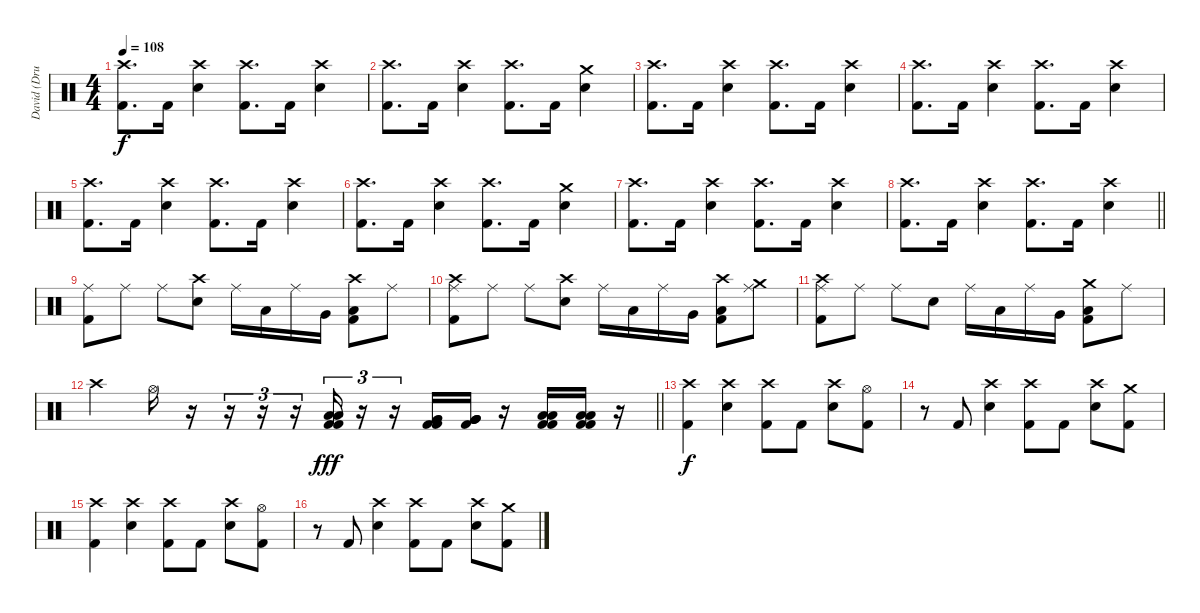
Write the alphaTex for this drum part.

\track ("David (Drum)" "David (Dru") {instrument percussion}
\staff {score}
\articulation defaults
\ts (4 4)
\section ("" "")
\tempo 108
\clef neutral
\ks c
("Crash high (hit)" "Kick (hit) 2").8{d dy f} "Kick (hit) 2".16 ("Crash high (hit)" "Electric Snare (hit)").4 ("Crash high (hit)" "Kick (hit) 2").8{d} "Kick (hit) 2".16 ("Crash high (hit)" "Electric Snare (hit)").4 |
("Crash high (hit)" "Kick (hit) 2").8{d} "Kick (hit) 2".16 ("Crash high (hit)" "Electric Snare (hit)").4 ("Crash high (hit)" "Kick (hit) 2").8{d} "Kick (hit) 2".16 ("Crash medium (hit)" "Electric Snare (hit)").4 |
("Crash high (hit)" "Kick (hit) 2").8{d} "Kick (hit) 2".16 ("Crash high (hit)" "Electric Snare (hit)").4 ("Crash high (hit)" "Kick (hit) 2").8{d} "Kick (hit) 2".16 ("Crash high (hit)" "Electric Snare (hit)").4 |
("Crash high (hit)" "Kick (hit) 2").8{d} "Kick (hit) 2".16 ("Crash high (hit)" "Electric Snare (hit)").4 ("Crash high (hit)" "Kick (hit) 2").8{d} "Kick (hit) 2".16 ("Crash high (hit)" "Electric Snare (hit)").4 |
("Crash high (hit)" "Kick (hit) 2").8{d} "Kick (hit) 2".16 ("Crash high (hit)" "Electric Snare (hit)").4 ("Crash high (hit)" "Kick (hit) 2").8{d} "Kick (hit) 2".16 ("Crash high (hit)" "Electric Snare (hit)").4 |
("Crash high (hit)" "Kick (hit) 2").8{d} "Kick (hit) 2".16 ("Crash high (hit)" "Electric Snare (hit)").4 ("Crash high (hit)" "Kick (hit) 2").8{d} "Kick (hit) 2".16 ("Crash medium (hit)" "Electric Snare (hit)").4 |
("Crash high (hit)" "Kick (hit) 2").8{d} "Kick (hit) 2".16 ("Crash high (hit)" "Electric Snare (hit)").4 ("Crash high (hit)" "Kick (hit) 2").8{d} "Kick (hit) 2".16 ("Crash high (hit)" "Electric Snare (hit)").4 |
\barLineRight lightlight
("Crash high (hit)" "Kick (hit) 2").8{d} "Kick (hit) 2".16 ("Crash high (hit)" "Electric Snare (hit)").4 ("Crash high (hit)" "Kick (hit) 2").8{d} "Kick (hit) 2".16 ("Crash high (hit)" "Electric Snare (hit)").4 |
\section ("" "")
("Ride (middle)" "Kick (hit) 2").8 "Ride (middle)".8 "Ride (middle)".8 ("Crash high (hit)" "Electric Snare (hit)").8 "Ride (middle)".16 "Low Tom (hit)".16 "Ride (middle)".16 "Very Low Tom (hit)".16 ("Crash high (hit)" "Low Floor Tom (hit)" "Kick (hit) 2").8 "Ride (middle)".8 |
("Crash high (hit)" "Ride (middle)" "Kick (hit) 2").8 "Ride (middle)".8 "Ride (middle)".8 ("Crash high (hit)" "Electric Snare (hit)").8 "Ride (middle)".16 "Low Tom (hit)".16 "Ride (middle)".16 "Very Low Tom (hit)".16 ("Crash high (hit)" "Low Floor Tom (hit)" "Kick (hit) 2").8 ("Crash medium (hit)" "Ride (middle)").8 |
("Crash high (hit)" "Ride (middle)" "Kick (hit) 2").8 "Ride (middle)".8 "Ride (middle)".8 "Electric Snare (hit)".8 "Ride (middle)".16 "Low Tom (hit)".16 "Ride (middle)".16 "Very Low Tom (hit)".16 ("Crash medium (hit)" "Low Floor Tom (hit)" "Kick (hit) 2").8 "Ride (middle)".8 |
\barLineRight lightlight "Crash high (hit)".4 "Hi-Hat (open)".16
r.16 r.16{tu (3 2)} r.16{tu (3 2)} r.16{tu (3 2)} ("Low Tom (hit)" "Low Tom (hit)" "Kick (hit) 2" "Kick (hit) 2").16{tu (3 2) dy fff} r.16{tu (3 2)} r.16{tu (3 2)} ("Very Low Tom (hit)" "Very Low Tom (hit)" "Kick (hit) 2" "Kick (hit) 2").16 ("Very Low Tom (hit)" "Very Low Tom (hit)" "Kick (hit) 2" "Very Low Tom (hit)").16 r.16 ("Low Floor Tom (hit)" "Low Floor Tom (hit)" "Kick (hit) 2" "Kick (hit) 2").16 ("Low Floor Tom (hit)" "Low Floor Tom (hit)" "Kick (hit) 2" "Kick (hit) 2").16 r.16 |
\section ("" "")
("Crash high (hit)" "Kick (hit) 2").4{dy f} ("Crash high (hit)" "Electric Snare (hit)").4 ("Crash high (hit)" "Kick (hit) 2").8 "Kick (hit) 2".8 ("Crash high (hit)" "Electric Snare (hit)").8 ("Hi-Hat (open)" "Kick (hit) 2").8 |
r.8 "Kick (hit) 2".8 ("Crash high (hit)" "Electric Snare (hit)").4 ("Crash high (hit)" "Kick (hit) 2").8 "Kick (hit) 2".8 ("Crash high (hit)" "Electric Snare (hit)").8 ("Crash medium (hit)" "Kick (hit) 2").8 |
("Crash high (hit)" "Kick (hit) 2").4 ("Crash high (hit)" "Electric Snare (hit)").4 ("Crash high (hit)" "Kick (hit) 2").8 "Kick (hit) 2".8 ("Crash high (hit)" "Electric Snare (hit)").8 ("Hi-Hat (open)" "Kick (hit) 2").8 |
r.8 "Kick (hit) 2".8 ("Crash high (hit)" "Electric Snare (hit)").4 ("Crash high (hit)" "Kick (hit) 2").8 "Kick (hit) 2".8 ("Crash high (hit)" "Electric Snare (hit)").8 ("Crash medium (hit)" "Kick (hit) 2").8
